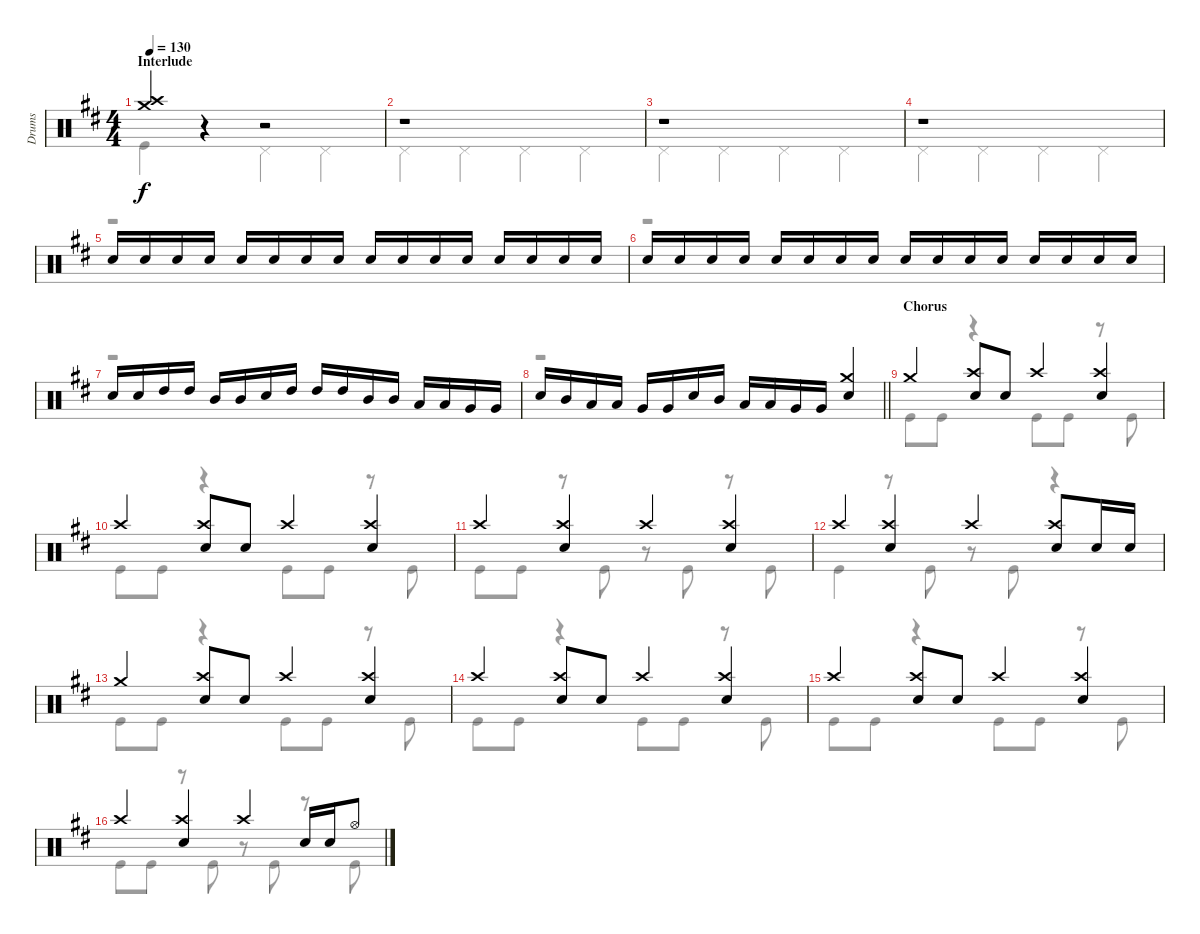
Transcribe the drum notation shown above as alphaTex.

\track ("Drums" "Drums") {instrument percussion}
\staff {score}
\articulation defaults
\voice
\ts (4 4)
\section ("" "Interlude")
\tempo 130
\clef neutral
\ks d
("Crash medium (hit)" "Crash high (hit)").4{dy f} r.4 r.2 |
r.1 |
r.1 |
r.1 |
"Electric Snare (hit)".16 "Electric Snare (hit)".16 "Electric Snare (hit)".16 "Electric Snare (hit)".16 "Electric Snare (hit)".16 "Electric Snare (hit)".16 "Electric Snare (hit)".16 "Electric Snare (hit)".16 "Electric Snare (hit)".16 "Electric Snare (hit)".16 "Electric Snare (hit)".16 "Electric Snare (hit)".16 "Electric Snare (hit)".16 "Electric Snare (hit)".16 "Electric Snare (hit)".16 "Electric Snare (hit)".16 |
"Electric Snare (hit)".16 "Electric Snare (hit)".16 "Electric Snare (hit)".16 "Electric Snare (hit)".16 "Electric Snare (hit)".16 "Electric Snare (hit)".16 "Electric Snare (hit)".16 "Electric Snare (hit)".16 "Electric Snare (hit)".16 "Electric Snare (hit)".16 "Electric Snare (hit)".16 "Electric Snare (hit)".16 "Electric Snare (hit)".16 "Electric Snare (hit)".16 "Electric Snare (hit)".16 "Electric Snare (hit)".16 |
"Electric Snare (hit)".16 "Electric Snare (hit)".16 "High Tom (hit)".16 "High Tom (hit)".16 "Mid Tom (hit)".16 "Mid Tom (hit)".16 "Electric Snare (hit)".16 "High Tom (hit)".16 "High Tom (hit)".16 "High Tom (hit)".16 "Mid Tom (hit)".16 "Mid Tom (hit)".16 "Low Tom (hit)".16 "Low Tom (hit)".16 "Very Low Tom (hit)".16 "Very Low Tom (hit)".16 |
\barLineRight lightlight "Electric Snare (hit)".16 "Mid Tom (hit)".16 "Low Tom (hit)".16 "Low Tom (hit)".16 "Very Low Tom (hit)".16 "Very Low Tom (hit)".16 "Electric Snare (hit)".16 "Mid Tom (hit)".16 "Low Tom (hit)".16 "Low Tom (hit)".16 "Very Low Tom (hit)".16 "Very Low Tom (hit)".16
("Crash medium (hit)" "Electric Snare (hit)").4 |
\section ("" "Chorus")
"Crash medium (hit)".4 ("Crash high (hit)" "Electric Snare (hit)").8 "Electric Snare (hit)".8 "Crash high (hit)".4 ("Crash high (hit)" "Electric Snare (hit)").4 |
"Crash high (hit)".4 ("Crash high (hit)" "Electric Snare (hit)").8 "Electric Snare (hit)".8 "Crash high (hit)".4 ("Crash high (hit)" "Electric Snare (hit)").4 |
"Crash high (hit)".4 ("Crash high (hit)" "Electric Snare (hit)").4 "Crash high (hit)".4 ("Crash high (hit)" "Electric Snare (hit)").4 |
"Crash high (hit)".4 ("Crash high (hit)" "Electric Snare (hit)").4 "Crash high (hit)".4 ("Crash high (hit)" "Electric Snare (hit)").8 "Electric Snare (hit)".16 "Electric Snare (hit)".16 |
"Crash medium (hit)".4 ("Crash high (hit)" "Electric Snare (hit)").8 "Electric Snare (hit)".8 "Crash high (hit)".4 ("Crash high (hit)" "Electric Snare (hit)").4 |
"Crash high (hit)".4 ("Crash high (hit)" "Electric Snare (hit)").8 "Electric Snare (hit)".8 "Crash high (hit)".4 ("Crash high (hit)" "Electric Snare (hit)").4 |
"Crash high (hit)".4 ("Crash high (hit)" "Electric Snare (hit)").8 "Electric Snare (hit)".8 "Crash high (hit)".4 ("Crash high (hit)" "Electric Snare (hit)").4 |
"Crash high (hit)".4 ("Crash high (hit)" "Electric Snare (hit)").4 "Crash high (hit)".4 "Electric Snare (hit)".16 "Electric Snare (hit)".16 "Hi-Hat (open)".8
\voice
\clef neutral
\ottava regular
\simile none
\ks d "Kick (hit)".4{dy f}
r.4 "Pedal Hi-Hat (hit)".4 "Pedal Hi-Hat (hit)".4 |
"Pedal Hi-Hat (hit)".4 "Pedal Hi-Hat (hit)".4 "Pedal Hi-Hat (hit)".4 "Pedal Hi-Hat (hit)".4 |
"Pedal Hi-Hat (hit)".4 "Pedal Hi-Hat (hit)".4 "Pedal Hi-Hat (hit)".4 "Pedal Hi-Hat (hit)".4 |
"Pedal Hi-Hat (hit)".4 "Pedal Hi-Hat (hit)".4 "Pedal Hi-Hat (hit)".4 "Pedal Hi-Hat (hit)".4 |
r.1 |
r.1 |
r.1 |
\barLineRight lightlight
r.1 |
"Kick (hit)".8 "Kick (hit)".8 r.4 "Kick (hit)".8 "Kick (hit)".8 r.8 "Kick (hit)".8 |
"Kick (hit)".8 "Kick (hit)".8 r.4 "Kick (hit)".8 "Kick (hit)".8 r.8 "Kick (hit)".8 |
"Kick (hit)".8 "Kick (hit)".8 r.8 "Kick (hit)".8 r.8 "Kick (hit)".8 r.8 "Kick (hit)".8 |
"Kick (hit)".4 r.8 "Kick (hit)".8 r.8 "Kick (hit)".8 r.4 |
"Kick (hit)".8 "Kick (hit)".8 r.4 "Kick (hit)".8 "Kick (hit)".8 r.8 "Kick (hit)".8 |
"Kick (hit)".8 "Kick (hit)".8 r.4 "Kick (hit)".8 "Kick (hit)".8 r.8 "Kick (hit)".8 |
"Kick (hit)".8 "Kick (hit)".8 r.4 "Kick (hit)".8 "Kick (hit)".8 r.8 "Kick (hit)".8 |
"Kick (hit)".8 "Kick (hit)".8 r.8 "Kick (hit)".8 r.8 "Kick (hit)".8 r.8 "Kick (hit)".8
